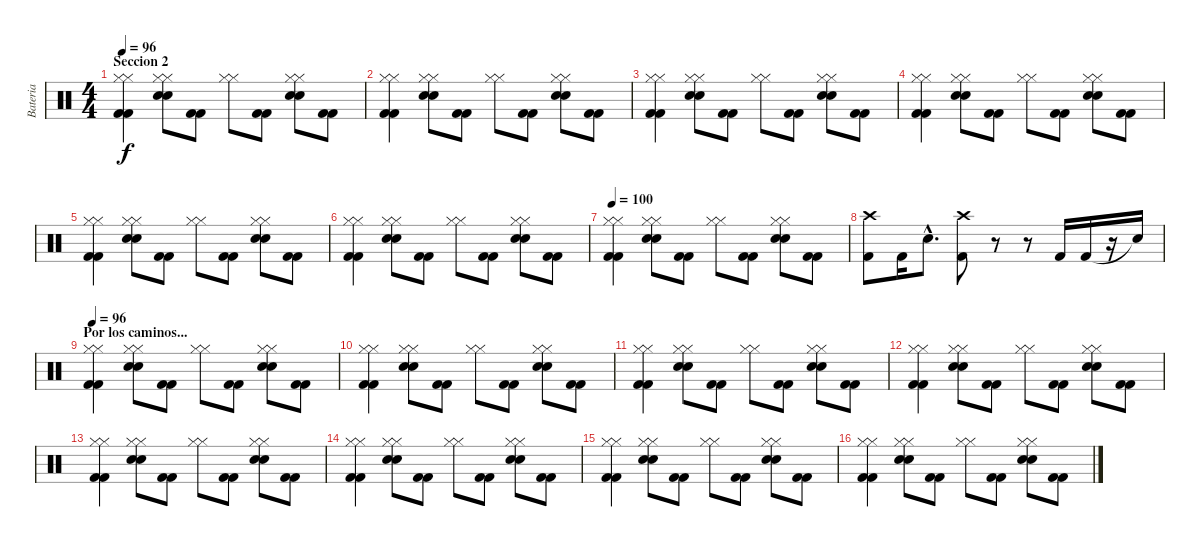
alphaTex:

\track ("Bateria" "Bateria") {instrument percussion}
\staff {score}
\articulation defaults
\ts (4 4)
\section ("" "Seccion 2")
\tempo 96
\clef neutral
\ks c
("Hi-Hat (closed)" "Hi-Hat (closed)" "Kick (hit) 2" "Kick (hit) 2").4{dy f} ("Hi-Hat (closed)" "Hi-Hat (closed)" "Snare (hit) 2" "Snare (hit) 2").8 ("Kick (hit) 2" "Kick (hit) 2").8 ("Hi-Hat (closed)" "Hi-Hat (closed)").8 ("Kick (hit) 2" "Kick (hit) 2").8 ("Hi-Hat (closed)" "Hi-Hat (closed)" "Snare (hit) 2" "Snare (hit) 2").8 ("Kick (hit) 2" "Kick (hit) 2").8 |
("Hi-Hat (closed)" "Hi-Hat (closed)" "Kick (hit) 2" "Kick (hit) 2").4 ("Hi-Hat (closed)" "Hi-Hat (closed)" "Snare (hit) 2" "Snare (hit) 2").8 ("Kick (hit) 2" "Kick (hit) 2").8 ("Hi-Hat (closed)" "Hi-Hat (closed)").8 ("Kick (hit) 2" "Kick (hit) 2").8 ("Hi-Hat (closed)" "Hi-Hat (closed)" "Snare (hit) 2" "Snare (hit) 2").8 ("Kick (hit) 2" "Kick (hit) 2").8 |
("Hi-Hat (closed)" "Hi-Hat (closed)" "Kick (hit) 2" "Kick (hit) 2").4 ("Hi-Hat (closed)" "Hi-Hat (closed)" "Snare (hit) 2" "Snare (hit) 2").8 ("Kick (hit) 2" "Kick (hit) 2").8 ("Hi-Hat (closed)" "Hi-Hat (closed)").8 ("Kick (hit) 2" "Kick (hit) 2").8 ("Hi-Hat (closed)" "Hi-Hat (closed)" "Snare (hit) 2" "Snare (hit) 2").8 ("Kick (hit) 2" "Kick (hit) 2").8 |
("Hi-Hat (closed)" "Hi-Hat (closed)" "Kick (hit) 2" "Kick (hit) 2").4 ("Hi-Hat (closed)" "Hi-Hat (closed)" "Snare (hit) 2" "Snare (hit) 2").8 ("Kick (hit) 2" "Kick (hit) 2").8 ("Hi-Hat (closed)" "Hi-Hat (closed)").8 ("Kick (hit) 2" "Kick (hit) 2").8 ("Hi-Hat (closed)" "Hi-Hat (closed)" "Snare (hit) 2" "Snare (hit) 2").8 ("Kick (hit) 2" "Kick (hit) 2").8 |
("Hi-Hat (closed)" "Hi-Hat (closed)" "Kick (hit) 2" "Kick (hit) 2").4 ("Hi-Hat (closed)" "Hi-Hat (closed)" "Snare (hit) 2" "Snare (hit) 2").8 ("Kick (hit) 2" "Kick (hit) 2").8 ("Hi-Hat (closed)" "Hi-Hat (closed)").8 ("Kick (hit) 2" "Kick (hit) 2").8 ("Hi-Hat (closed)" "Hi-Hat (closed)" "Snare (hit) 2" "Snare (hit) 2").8 ("Kick (hit) 2" "Kick (hit) 2").8 |
("Hi-Hat (closed)" "Hi-Hat (closed)" "Kick (hit) 2" "Kick (hit) 2").4 ("Hi-Hat (closed)" "Hi-Hat (closed)" "Snare (hit) 2" "Snare (hit) 2").8 ("Kick (hit) 2" "Kick (hit) 2").8 ("Hi-Hat (closed)" "Hi-Hat (closed)").8 ("Kick (hit) 2" "Kick (hit) 2").8 ("Hi-Hat (closed)" "Hi-Hat (closed)" "Snare (hit) 2" "Snare (hit) 2").8 ("Kick (hit) 2" "Kick (hit) 2").8 |
\tempo 100
("Hi-Hat (closed)" "Hi-Hat (closed)" "Kick (hit) 2" "Kick (hit) 2").4 ("Hi-Hat (closed)" "Hi-Hat (closed)" "Snare (hit) 2" "Snare (hit) 2").8 ("Kick (hit) 2" "Kick (hit) 2").8 ("Hi-Hat (closed)" "Hi-Hat (closed)").8 ("Kick (hit) 2" "Kick (hit) 2").8 ("Hi-Hat (closed)" "Hi-Hat (closed)" "Snare (hit) 2" "Snare (hit) 2").8 ("Kick (hit) 2" "Kick (hit) 2").8 |
("Crash high (hit)" "Kick (hit) 2").8 "Kick (hit) 2".16 "Snare (hit) 2"{hac}.8{d} ("Crash high (hit)" "Kick (hit) 2").8 r.8 r.8 "Kick (hit) 2".16 "Kick (hit) 2".16 r.16 "Snare (hit)"{t}.16 |
\section ("" "Por los caminos...")
\tempo 96
("Hi-Hat (closed)" "Hi-Hat (closed)" "Kick (hit) 2" "Kick (hit) 2").4 ("Hi-Hat (closed)" "Hi-Hat (closed)" "Snare (hit) 2" "Snare (hit) 2").8 ("Kick (hit) 2" "Kick (hit) 2").8 ("Hi-Hat (closed)" "Hi-Hat (closed)").8 ("Kick (hit) 2" "Kick (hit) 2").8 ("Hi-Hat (closed)" "Hi-Hat (closed)" "Snare (hit) 2" "Snare (hit) 2").8 ("Kick (hit) 2" "Kick (hit) 2").8 |
("Hi-Hat (closed)" "Hi-Hat (closed)" "Kick (hit) 2" "Kick (hit) 2").4 ("Hi-Hat (closed)" "Hi-Hat (closed)" "Snare (hit) 2" "Snare (hit) 2").8 ("Kick (hit) 2" "Kick (hit) 2").8 ("Hi-Hat (closed)" "Hi-Hat (closed)").8 ("Kick (hit) 2" "Kick (hit) 2").8 ("Hi-Hat (closed)" "Hi-Hat (closed)" "Snare (hit) 2" "Snare (hit) 2").8 ("Kick (hit) 2" "Kick (hit) 2").8 |
("Hi-Hat (closed)" "Hi-Hat (closed)" "Kick (hit) 2" "Kick (hit) 2").4 ("Hi-Hat (closed)" "Hi-Hat (closed)" "Snare (hit) 2" "Snare (hit) 2").8 ("Kick (hit) 2" "Kick (hit) 2").8 ("Hi-Hat (closed)" "Hi-Hat (closed)").8 ("Kick (hit) 2" "Kick (hit) 2").8 ("Hi-Hat (closed)" "Hi-Hat (closed)" "Snare (hit) 2" "Snare (hit) 2").8 ("Kick (hit) 2" "Kick (hit) 2").8 |
("Hi-Hat (closed)" "Hi-Hat (closed)" "Kick (hit) 2" "Kick (hit) 2").4 ("Hi-Hat (closed)" "Hi-Hat (closed)" "Snare (hit) 2" "Snare (hit) 2").8 ("Kick (hit) 2" "Kick (hit) 2").8 ("Hi-Hat (closed)" "Hi-Hat (closed)").8 ("Kick (hit) 2" "Kick (hit) 2").8 ("Hi-Hat (closed)" "Hi-Hat (closed)" "Snare (hit) 2" "Snare (hit) 2").8 ("Kick (hit) 2" "Kick (hit) 2").8 |
("Hi-Hat (closed)" "Hi-Hat (closed)" "Kick (hit) 2" "Kick (hit) 2").4 ("Hi-Hat (closed)" "Hi-Hat (closed)" "Snare (hit) 2" "Snare (hit) 2").8 ("Kick (hit) 2" "Kick (hit) 2").8 ("Hi-Hat (closed)" "Hi-Hat (closed)").8 ("Kick (hit) 2" "Kick (hit) 2").8 ("Hi-Hat (closed)" "Hi-Hat (closed)" "Snare (hit) 2" "Snare (hit) 2").8 ("Kick (hit) 2" "Kick (hit) 2").8 |
("Hi-Hat (closed)" "Hi-Hat (closed)" "Kick (hit) 2" "Kick (hit) 2").4 ("Hi-Hat (closed)" "Hi-Hat (closed)" "Snare (hit) 2" "Snare (hit) 2").8 ("Kick (hit) 2" "Kick (hit) 2").8 ("Hi-Hat (closed)" "Hi-Hat (closed)").8 ("Kick (hit) 2" "Kick (hit) 2").8 ("Hi-Hat (closed)" "Hi-Hat (closed)" "Snare (hit) 2" "Snare (hit) 2").8 ("Kick (hit) 2" "Kick (hit) 2").8 |
("Hi-Hat (closed)" "Hi-Hat (closed)" "Kick (hit) 2" "Kick (hit) 2").4 ("Hi-Hat (closed)" "Hi-Hat (closed)" "Snare (hit) 2" "Snare (hit) 2").8 ("Kick (hit) 2" "Kick (hit) 2").8 ("Hi-Hat (closed)" "Hi-Hat (closed)").8 ("Kick (hit) 2" "Kick (hit) 2").8 ("Hi-Hat (closed)" "Hi-Hat (closed)" "Snare (hit) 2" "Snare (hit) 2").8 ("Kick (hit) 2" "Kick (hit) 2").8 |
("Hi-Hat (closed)" "Hi-Hat (closed)" "Kick (hit) 2" "Kick (hit) 2").4 ("Hi-Hat (closed)" "Hi-Hat (closed)" "Snare (hit) 2" "Snare (hit) 2").8 ("Kick (hit) 2" "Kick (hit) 2").8 ("Hi-Hat (closed)" "Hi-Hat (closed)").8 ("Kick (hit) 2" "Kick (hit) 2").8 ("Hi-Hat (closed)" "Hi-Hat (closed)" "Snare (hit) 2" "Snare (hit) 2").8 ("Kick (hit) 2" "Kick (hit) 2").8
